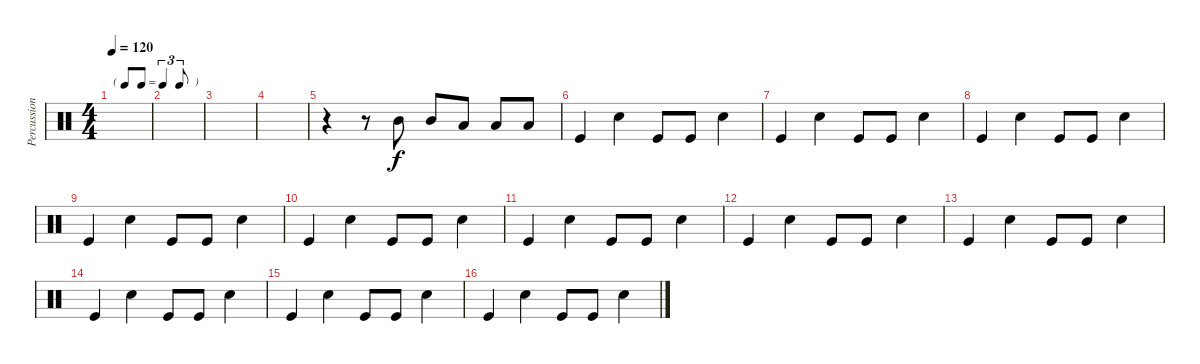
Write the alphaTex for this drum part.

\track ("Percussion" "Percussion") {instrument percussion}
\staff {score}
\articulation defaults
\ts (4 4)
\tf triplet8th
\tempo 120
\clef neutral
\ks c
|
|
|
|
r.4 r.8 "Mid Tom (hit)".8 "Mid Tom (hit)".8 "Low Tom (hit)".8 "Low Tom (hit)".8 "Low Tom (hit)".8 |
"Kick (hit)".4 "Snare (hit) 2".4 "Kick (hit)".8 "Kick (hit)".8 "Snare (hit) 2".4 |
"Kick (hit)".4 "Snare (hit) 2".4 "Kick (hit)".8 "Kick (hit)".8 "Snare (hit) 2".4 |
"Kick (hit)".4 "Snare (hit) 2".4 "Kick (hit)".8 "Kick (hit)".8 "Snare (hit) 2".4 |
"Kick (hit)".4 "Snare (hit) 2".4 "Kick (hit)".8 "Kick (hit)".8 "Snare (hit) 2".4 |
"Kick (hit)".4 "Snare (hit) 2".4 "Kick (hit)".8 "Kick (hit)".8 "Snare (hit) 2".4 |
"Kick (hit)".4 "Snare (hit) 2".4 "Kick (hit)".8 "Kick (hit)".8 "Snare (hit) 2".4 |
"Kick (hit)".4 "Snare (hit) 2".4 "Kick (hit)".8 "Kick (hit)".8 "Snare (hit) 2".4 |
"Kick (hit)".4 "Snare (hit) 2".4 "Kick (hit)".8 "Kick (hit)".8 "Snare (hit) 2".4 |
"Kick (hit)".4 "Snare (hit) 2".4 "Kick (hit)".8 "Kick (hit)".8 "Snare (hit) 2".4 |
"Kick (hit)".4 "Snare (hit) 2".4 "Kick (hit)".8 "Kick (hit)".8 "Snare (hit) 2".4 |
"Kick (hit)".4 "Snare (hit) 2".4 "Kick (hit)".8 "Kick (hit)".8 "Snare (hit) 2".4
